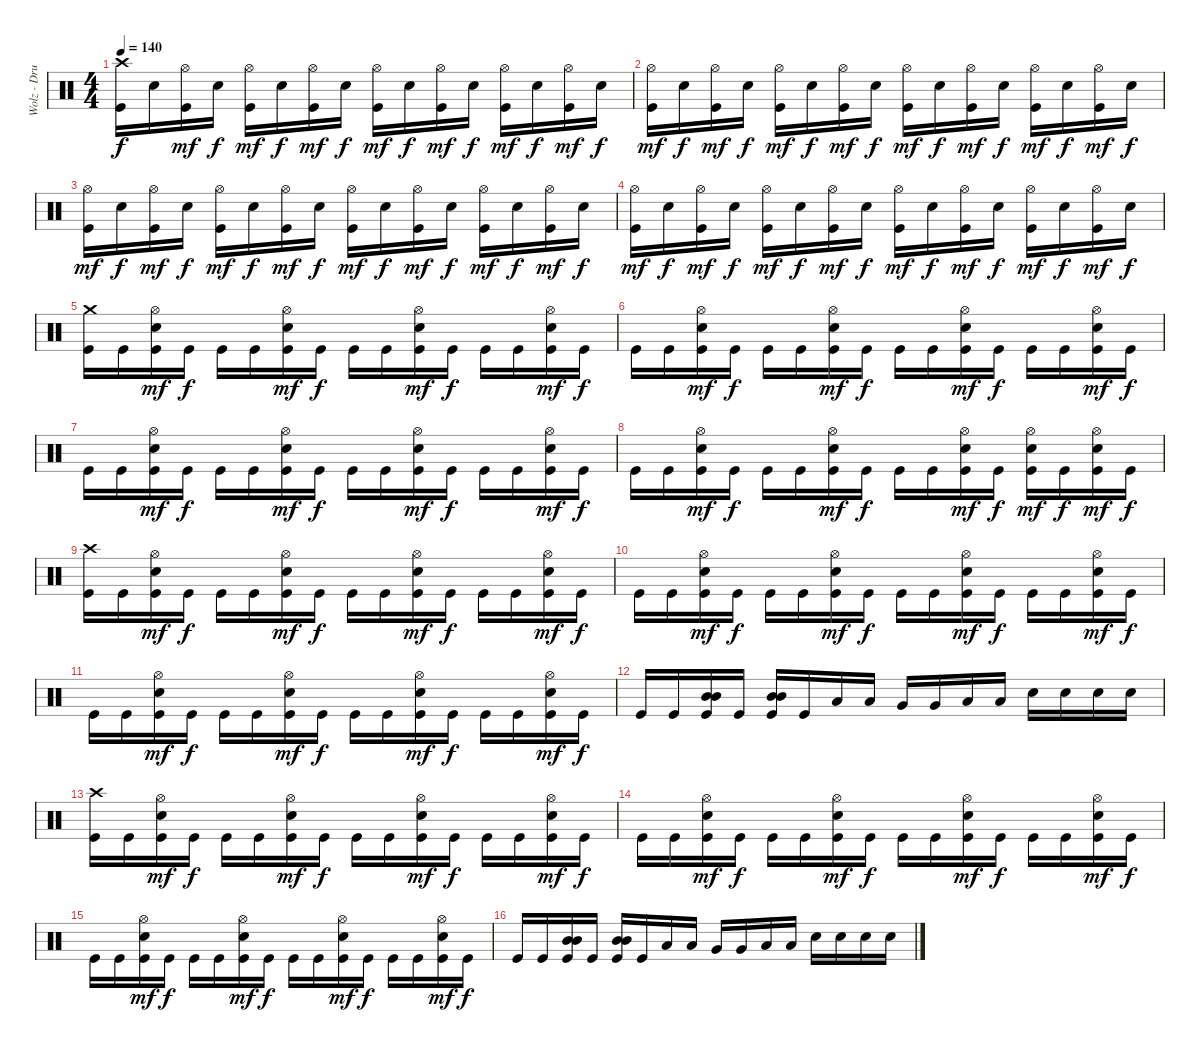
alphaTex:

\track ("Wolz - Drums" "Wolz - Dru") {instrument percussion}
\staff {score}
\articulation defaults
\ts (4 4)
\tempo 140
\clef neutral
\ks c
("Crash high (hit)" "Kick (hit)").16{dy f} "Electric Snare (hit)".16 ("Hi-Hat (open)" "Kick (hit)").16{dy mf} "Electric Snare (hit)".16{dy f} ("Hi-Hat (open)" "Kick (hit)").16{dy mf} "Electric Snare (hit)".16{dy f} ("Hi-Hat (open)" "Kick (hit)").16{dy mf} "Electric Snare (hit)".16{dy f} ("Hi-Hat (open)" "Kick (hit)").16{dy mf} "Electric Snare (hit)".16{dy f} ("Hi-Hat (open)" "Kick (hit)").16{dy mf} "Electric Snare (hit)".16{dy f} ("Hi-Hat (open)" "Kick (hit)").16{dy mf} "Electric Snare (hit)".16{dy f} ("Hi-Hat (open)" "Kick (hit)").16{dy mf} "Electric Snare (hit)".16{dy f} |
("Hi-Hat (open)" "Kick (hit)").16{dy mf} "Electric Snare (hit)".16{dy f} ("Hi-Hat (open)" "Kick (hit)").16{dy mf} "Electric Snare (hit)".16{dy f} ("Hi-Hat (open)" "Kick (hit)").16{dy mf} "Electric Snare (hit)".16{dy f} ("Hi-Hat (open)" "Kick (hit)").16{dy mf} "Electric Snare (hit)".16{dy f} ("Hi-Hat (open)" "Kick (hit)").16{dy mf} "Electric Snare (hit)".16{dy f} ("Hi-Hat (open)" "Kick (hit)").16{dy mf} "Electric Snare (hit)".16{dy f} ("Hi-Hat (open)" "Kick (hit)").16{dy mf} "Electric Snare (hit)".16{dy f} ("Hi-Hat (open)" "Kick (hit)").16{dy mf} "Electric Snare (hit)".16{dy f} |
("Hi-Hat (open)" "Kick (hit)").16{dy mf} "Electric Snare (hit)".16{dy f} ("Hi-Hat (open)" "Kick (hit)").16{dy mf} "Electric Snare (hit)".16{dy f} ("Hi-Hat (open)" "Kick (hit)").16{dy mf} "Electric Snare (hit)".16{dy f} ("Hi-Hat (open)" "Kick (hit)").16{dy mf} "Electric Snare (hit)".16{dy f} ("Hi-Hat (open)" "Kick (hit)").16{dy mf} "Electric Snare (hit)".16{dy f} ("Hi-Hat (open)" "Kick (hit)").16{dy mf} "Electric Snare (hit)".16{dy f} ("Hi-Hat (open)" "Kick (hit)").16{dy mf} "Electric Snare (hit)".16{dy f} ("Hi-Hat (open)" "Kick (hit)").16{dy mf} "Electric Snare (hit)".16{dy f} |
("Hi-Hat (open)" "Kick (hit)").16{dy mf} "Electric Snare (hit)".16{dy f} ("Hi-Hat (open)" "Kick (hit)").16{dy mf} "Electric Snare (hit)".16{dy f} ("Hi-Hat (open)" "Kick (hit)").16{dy mf} "Electric Snare (hit)".16{dy f} ("Hi-Hat (open)" "Kick (hit)").16{dy mf} "Electric Snare (hit)".16{dy f} ("Hi-Hat (open)" "Kick (hit)").16{dy mf} "Electric Snare (hit)".16{dy f} ("Hi-Hat (open)" "Kick (hit)").16{dy mf} "Electric Snare (hit)".16{dy f} ("Hi-Hat (open)" "Kick (hit)").16{dy mf} "Electric Snare (hit)".16{dy f} ("Hi-Hat (open)" "Kick (hit)").16{dy mf} "Electric Snare (hit)".16{dy f} |
("Crash medium (hit)" "Kick (hit)").16 "Kick (hit)".16 ("Hi-Hat (open)" "Electric Snare (hit)" "Kick (hit)").16{dy mf} "Kick (hit)".16{dy f} "Kick (hit)".16 "Kick (hit)".16 ("Hi-Hat (open)" "Electric Snare (hit)" "Kick (hit)").16{dy mf} "Kick (hit)".16{dy f} "Kick (hit)".16 "Kick (hit)".16 ("Hi-Hat (open)" "Electric Snare (hit)" "Kick (hit)").16{dy mf} "Kick (hit)".16{dy f} "Kick (hit)".16 "Kick (hit)".16 ("Hi-Hat (open)" "Electric Snare (hit)" "Kick (hit)").16{dy mf} "Kick (hit)".16{dy f} |
"Kick (hit)".16 "Kick (hit)".16 ("Hi-Hat (open)" "Electric Snare (hit)" "Kick (hit)").16{dy mf} "Kick (hit)".16{dy f} "Kick (hit)".16 "Kick (hit)".16 ("Hi-Hat (open)" "Electric Snare (hit)" "Kick (hit)").16{dy mf} "Kick (hit)".16{dy f} "Kick (hit)".16 "Kick (hit)".16 ("Hi-Hat (open)" "Electric Snare (hit)" "Kick (hit)").16{dy mf} "Kick (hit)".16{dy f} "Kick (hit)".16 "Kick (hit)".16 ("Hi-Hat (open)" "Electric Snare (hit)" "Kick (hit)").16{dy mf} "Kick (hit)".16{dy f} |
"Kick (hit)".16 "Kick (hit)".16 ("Hi-Hat (open)" "Electric Snare (hit)" "Kick (hit)").16{dy mf} "Kick (hit)".16{dy f} "Kick (hit)".16 "Kick (hit)".16 ("Hi-Hat (open)" "Electric Snare (hit)" "Kick (hit)").16{dy mf} "Kick (hit)".16{dy f} "Kick (hit)".16 "Kick (hit)".16 ("Hi-Hat (open)" "Electric Snare (hit)" "Kick (hit)").16{dy mf} "Kick (hit)".16{dy f} "Kick (hit)".16 "Kick (hit)".16 ("Hi-Hat (open)" "Electric Snare (hit)" "Kick (hit)").16{dy mf} "Kick (hit)".16{dy f} |
"Kick (hit)".16 "Kick (hit)".16 ("Hi-Hat (open)" "Electric Snare (hit)" "Kick (hit)").16{dy mf} "Kick (hit)".16{dy f} "Kick (hit)".16 "Kick (hit)".16 ("Hi-Hat (open)" "Electric Snare (hit)" "Kick (hit)").16{dy mf} "Kick (hit)".16{dy f} "Kick (hit)".16 "Kick (hit)".16 ("Hi-Hat (open)" "Electric Snare (hit)" "Kick (hit)").16{dy mf} "Kick (hit)".16{dy f} ("Hi-Hat (open)" "Electric Snare (hit)" "Kick (hit)").16{dy mf} "Kick (hit)".16{dy f} ("Hi-Hat (open)" "Electric Snare (hit)" "Kick (hit)").16{dy mf} "Kick (hit)".16{dy f} |
("Crash high (hit)" "Kick (hit)").16 "Kick (hit)".16 ("Hi-Hat (open)" "Electric Snare (hit)" "Kick (hit)").16{dy mf} "Kick (hit)".16{dy f} "Kick (hit)".16 "Kick (hit)".16 ("Hi-Hat (open)" "Electric Snare (hit)" "Kick (hit)").16{dy mf} "Kick (hit)".16{dy f} "Kick (hit)".16 "Kick (hit)".16 ("Hi-Hat (open)" "Electric Snare (hit)" "Kick (hit)").16{dy mf} "Kick (hit)".16{dy f} "Kick (hit)".16 "Kick (hit)".16 ("Hi-Hat (open)" "Electric Snare (hit)" "Kick (hit)").16{dy mf} "Kick (hit)".16{dy f} |
"Kick (hit)".16 "Kick (hit)".16 ("Hi-Hat (open)" "Electric Snare (hit)" "Kick (hit)").16{dy mf} "Kick (hit)".16{dy f} "Kick (hit)".16 "Kick (hit)".16 ("Hi-Hat (open)" "Electric Snare (hit)" "Kick (hit)").16{dy mf} "Kick (hit)".16{dy f} "Kick (hit)".16 "Kick (hit)".16 ("Hi-Hat (open)" "Electric Snare (hit)" "Kick (hit)").16{dy mf} "Kick (hit)".16{dy f} "Kick (hit)".16 "Kick (hit)".16 ("Hi-Hat (open)" "Electric Snare (hit)" "Kick (hit)").16{dy mf} "Kick (hit)".16{dy f} |
"Kick (hit)".16 "Kick (hit)".16 ("Hi-Hat (open)" "Electric Snare (hit)" "Kick (hit)").16{dy mf} "Kick (hit)".16{dy f} "Kick (hit)".16 "Kick (hit)".16 ("Hi-Hat (open)" "Electric Snare (hit)" "Kick (hit)").16{dy mf} "Kick (hit)".16{dy f} "Kick (hit)".16 "Kick (hit)".16 ("Hi-Hat (open)" "Electric Snare (hit)" "Kick (hit)").16{dy mf} "Kick (hit)".16{dy f} "Kick (hit)".16 "Kick (hit)".16 ("Hi-Hat (open)" "Electric Snare (hit)" "Kick (hit)").16{dy mf} "Kick (hit)".16{dy f} |
"Kick (hit)".16 "Kick (hit)".16 ("Mid Tom (hit)" "Mid Tom (hit)" "Kick (hit)").16{bu 60} "Kick (hit)".16 ("Mid Tom (hit)" "Mid Tom (hit)" "Kick (hit)").16{bu 60} "Kick (hit)".16 "Low Tom (hit)".16 "Low Tom (hit)".16 "Very Low Tom (hit)".16 "Very Low Tom (hit)".16 "Low Floor Tom (hit)".16 "Low Floor Tom (hit)".16 "Electric Snare (hit)".16 "Electric Snare (hit)".16 "Electric Snare (hit)".16 "Electric Snare (hit)".16 |
("Crash high (hit)" "Kick (hit)").16 "Kick (hit)".16 ("Hi-Hat (open)" "Electric Snare (hit)" "Kick (hit)").16{dy mf} "Kick (hit)".16{dy f} "Kick (hit)".16 "Kick (hit)".16 ("Hi-Hat (open)" "Electric Snare (hit)" "Kick (hit)").16{dy mf} "Kick (hit)".16{dy f} "Kick (hit)".16 "Kick (hit)".16 ("Hi-Hat (open)" "Electric Snare (hit)" "Kick (hit)").16{dy mf} "Kick (hit)".16{dy f} "Kick (hit)".16 "Kick (hit)".16 ("Hi-Hat (open)" "Electric Snare (hit)" "Kick (hit)").16{dy mf} "Kick (hit)".16{dy f} |
"Kick (hit)".16 "Kick (hit)".16 ("Hi-Hat (open)" "Electric Snare (hit)" "Kick (hit)").16{dy mf} "Kick (hit)".16{dy f} "Kick (hit)".16 "Kick (hit)".16 ("Hi-Hat (open)" "Electric Snare (hit)" "Kick (hit)").16{dy mf} "Kick (hit)".16{dy f} "Kick (hit)".16 "Kick (hit)".16 ("Hi-Hat (open)" "Electric Snare (hit)" "Kick (hit)").16{dy mf} "Kick (hit)".16{dy f} "Kick (hit)".16 "Kick (hit)".16 ("Hi-Hat (open)" "Electric Snare (hit)" "Kick (hit)").16{dy mf} "Kick (hit)".16{dy f} |
"Kick (hit)".16 "Kick (hit)".16 ("Hi-Hat (open)" "Electric Snare (hit)" "Kick (hit)").16{dy mf} "Kick (hit)".16{dy f} "Kick (hit)".16 "Kick (hit)".16 ("Hi-Hat (open)" "Electric Snare (hit)" "Kick (hit)").16{dy mf} "Kick (hit)".16{dy f} "Kick (hit)".16 "Kick (hit)".16 ("Hi-Hat (open)" "Electric Snare (hit)" "Kick (hit)").16{dy mf} "Kick (hit)".16{dy f} "Kick (hit)".16 "Kick (hit)".16 ("Hi-Hat (open)" "Electric Snare (hit)" "Kick (hit)").16{dy mf} "Kick (hit)".16{dy f} |
"Kick (hit)".16 "Kick (hit)".16 ("Mid Tom (hit)" "Mid Tom (hit)" "Kick (hit)").16{bu 60} "Kick (hit)".16 ("Mid Tom (hit)" "Mid Tom (hit)" "Kick (hit)").16{bu 60} "Kick (hit)".16 "Low Tom (hit)".16 "Low Tom (hit)".16 "Very Low Tom (hit)".16 "Very Low Tom (hit)".16 "Low Floor Tom (hit)".16 "Low Floor Tom (hit)".16 "Electric Snare (hit)".16 "Electric Snare (hit)".16 "Electric Snare (hit)".16 "Electric Snare (hit)".16
